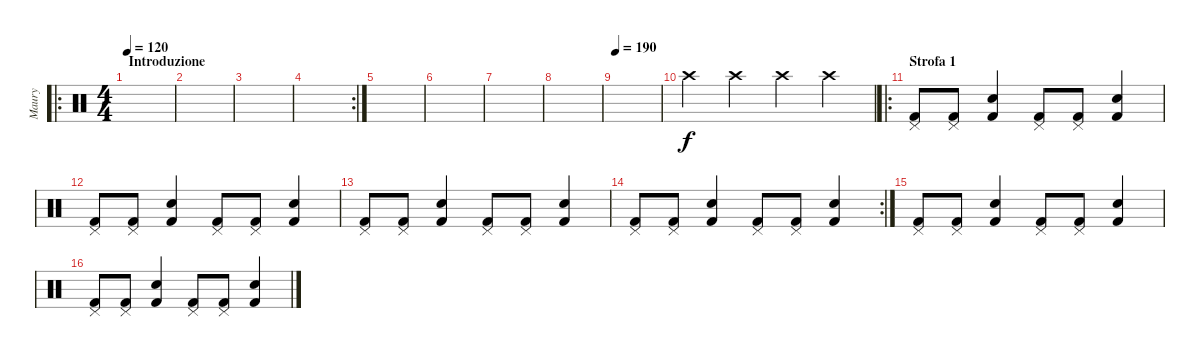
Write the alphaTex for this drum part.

\track ("Maury" "Maury") {instrument percussion}
\staff {score}
\articulation defaults
\ro
\ts (4 4)
\section ("" "Introduzione")
\tempo 120
\tempo 190
\tempo 120
\clef neutral
\ks c
|
|
|
\rc 2
|
|
|
|
|
\tempo 190
|
"Crash high (hit)".4 "Crash high (hit)".4 "Crash high (hit)".4 "Crash high (hit)".4 |
\ro
\section ("" "Strofa 1")
("Pedal Hi-Hat (hit)" "Kick (hit) 2").8 ("Pedal Hi-Hat (hit)" "Kick (hit) 2").8 ("Snare (hit) 2" "Kick (hit) 2").4 ("Pedal Hi-Hat (hit)" "Kick (hit) 2").8 ("Pedal Hi-Hat (hit)" "Kick (hit) 2").8 ("Snare (hit) 2" "Kick (hit) 2").4 |
("Pedal Hi-Hat (hit)" "Kick (hit) 2").8 ("Pedal Hi-Hat (hit)" "Kick (hit) 2").8 ("Snare (hit) 2" "Kick (hit) 2").4 ("Pedal Hi-Hat (hit)" "Kick (hit) 2").8 ("Pedal Hi-Hat (hit)" "Kick (hit) 2").8 ("Snare (hit) 2" "Kick (hit) 2").4 |
("Pedal Hi-Hat (hit)" "Kick (hit) 2").8 ("Pedal Hi-Hat (hit)" "Kick (hit) 2").8 ("Snare (hit) 2" "Kick (hit) 2").4 ("Pedal Hi-Hat (hit)" "Kick (hit) 2").8 ("Pedal Hi-Hat (hit)" "Kick (hit) 2").8 ("Snare (hit) 2" "Kick (hit) 2").4 |
\rc 2
("Pedal Hi-Hat (hit)" "Kick (hit) 2").8 ("Pedal Hi-Hat (hit)" "Kick (hit) 2").8 ("Snare (hit) 2" "Kick (hit) 2").4 ("Pedal Hi-Hat (hit)" "Kick (hit) 2").8 ("Pedal Hi-Hat (hit)" "Kick (hit) 2").8 ("Snare (hit) 2" "Kick (hit) 2").4 |
("Pedal Hi-Hat (hit)" "Kick (hit) 2").8 ("Pedal Hi-Hat (hit)" "Kick (hit) 2").8 ("Snare (hit) 2" "Kick (hit) 2").4 ("Pedal Hi-Hat (hit)" "Kick (hit) 2").8 ("Pedal Hi-Hat (hit)" "Kick (hit) 2").8 ("Snare (hit) 2" "Kick (hit) 2").4 |
("Pedal Hi-Hat (hit)" "Kick (hit) 2").8 ("Pedal Hi-Hat (hit)" "Kick (hit) 2").8 ("Snare (hit) 2" "Kick (hit) 2").4 ("Pedal Hi-Hat (hit)" "Kick (hit) 2").8 ("Pedal Hi-Hat (hit)" "Kick (hit) 2").8 ("Snare (hit) 2" "Kick (hit) 2").4
